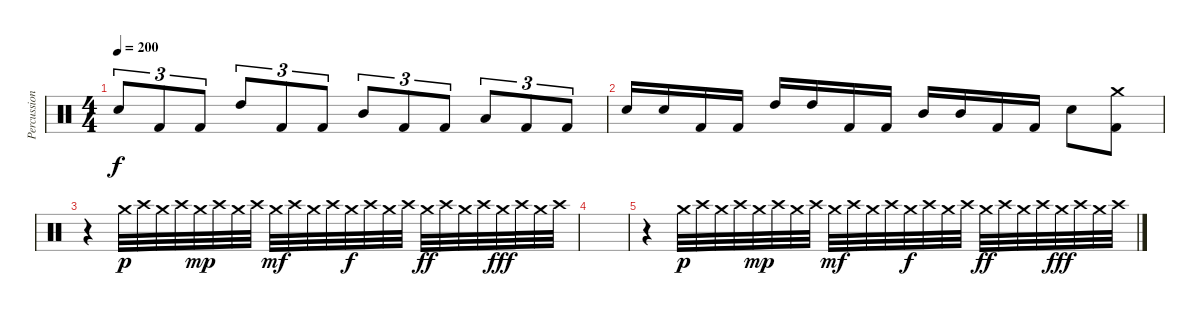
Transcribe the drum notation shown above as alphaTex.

\track ("Percussion" "Percussion") {instrument percussion}
\staff {score}
\articulation defaults
\ts (4 4)
\tempo 200
\clef neutral
\ks c "Snare (hit) 2".8{tu (3 2) dy f} "Kick (hit) 2".8{tu (3 2)} "Kick (hit) 2".8{tu (3 2)} "High Tom (hit)".8{tu (3 2)} "Kick (hit) 2".8{tu (3 2)} "Kick (hit) 2".8{tu (3 2)} "Mid Tom (hit)".8{tu (3 2)} "Kick (hit) 2".8{tu (3 2)} "Kick (hit) 2".8{tu (3 2)} "Low Tom (hit)".8{tu (3 2)} "Kick (hit) 2".8{tu (3 2)} "Kick (hit) 2".8{tu (3 2)}
|
"Snare (hit) 2".16 "Snare (hit) 2".16 "Kick (hit) 2".16 "Kick (hit) 2".16 "High Tom (hit)".16 "High Tom (hit)".16 "Kick (hit) 2".16 "Kick (hit) 2".16 "Mid Tom (hit)".16 "Mid Tom (hit)".16 "Kick (hit) 2".16 "Kick (hit) 2".16 "Snare (hit) 2".8 ("Crash medium (hit)" "Kick (hit) 2").8 |
r.4 "Crash medium (hit)".32{dy p} "Crash high (hit)".32 "Crash medium (hit)".32 "Crash high (hit)".32 "Crash medium (hit)".32{dy mp} "Crash high (hit)".32 "Crash medium (hit)".32 "Crash high (hit)".32 "Crash medium (hit)".32{dy mf} "Crash high (hit)".32 "Crash medium (hit)".32 "Crash high (hit)".32 "Crash medium (hit)".32{dy f} "Crash high (hit)".32 "Crash medium (hit)".32 "Crash high (hit)".32 "Crash medium (hit)".32{dy ff} "Crash high (hit)".32 "Crash medium (hit)".32 "Crash high (hit)".32 "Crash medium (hit)".32{dy fff} "Crash high (hit)".32 "Crash medium (hit)".32 "Crash high (hit)".32 |
|
r.4 "Crash medium (hit)".32{dy p} "Crash high (hit)".32 "Crash medium (hit)".32 "Crash high (hit)".32 "Crash medium (hit)".32{dy mp} "Crash high (hit)".32 "Crash medium (hit)".32 "Crash high (hit)".32 "Crash medium (hit)".32{dy mf} "Crash high (hit)".32 "Crash medium (hit)".32 "Crash high (hit)".32 "Crash medium (hit)".32{dy f} "Crash high (hit)".32 "Crash medium (hit)".32 "Crash high (hit)".32 "Crash medium (hit)".32{dy ff} "Crash high (hit)".32 "Crash medium (hit)".32 "Crash high (hit)".32 "Crash medium (hit)".32{dy fff} "Crash high (hit)".32 "Crash medium (hit)".32 "Crash high (hit)".32
